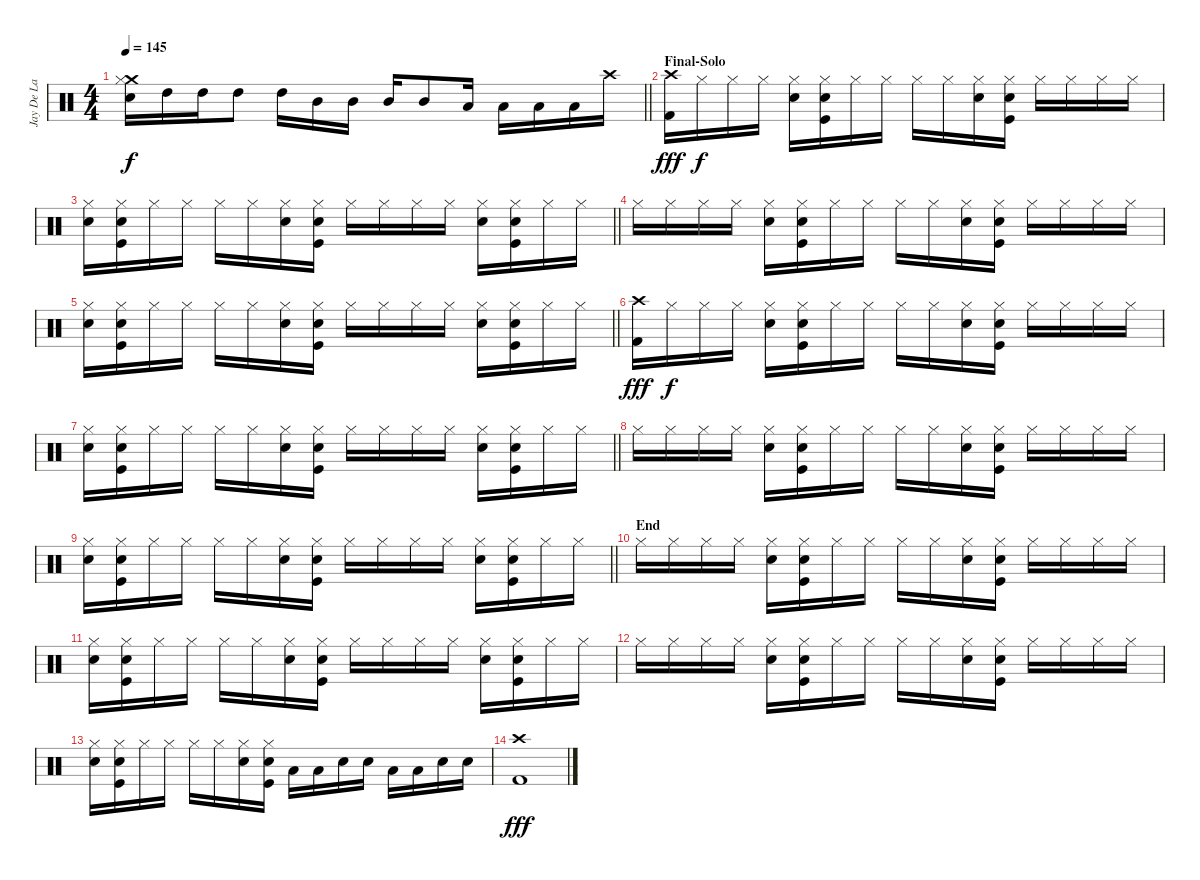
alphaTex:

\track ("Jay De La Cueva o C. G." "Jay De La ") {instrument percussion}
\staff {score}
\articulation defaults
\ts (4 4)
\tempo 145
\clef neutral
\barLineRight lightlight
\ks c
("Crash medium (hit)" "Snare (hit) 2" "Hi-Hat (closed)").16{dy f} "High Tom (hit)".16 "High Tom (hit)".16 "High Tom (hit)".8 "High Tom (hit)".16 "Mid Tom (hit)".16 "Mid Tom (hit)".16 "Mid Tom (hit)".16 "Mid Tom (hit)".8 "Low Tom (hit)".16 "Low Tom (hit)".16 "Low Tom (hit)".16 "Low Tom (hit)".16 "Crash high (hit)".16 |
\section ("" "Final-Solo")
("Crash high (hit)" "Kick (hit) 2").16{dy fff} "Hi-Hat (closed)".16{dy f} "Hi-Hat (closed)".16 "Hi-Hat (closed)".16 ("Snare (hit) 2" "Hi-Hat (closed)").16 ("Kick (hit)" "Snare (hit) 2" "Hi-Hat (closed)").16 "Hi-Hat (closed)".16 "Hi-Hat (closed)".16 "Hi-Hat (closed)".16 "Hi-Hat (closed)".16 ("Snare (hit) 2" "Hi-Hat (closed)").16 ("Kick (hit)" "Snare (hit) 2" "Hi-Hat (closed)").16 "Hi-Hat (closed)".16 "Hi-Hat (closed)".16 "Hi-Hat (closed)".16 "Hi-Hat (closed)".16 |
\barLineRight lightlight
("Snare (hit) 2" "Hi-Hat (closed)").16 ("Kick (hit)" "Snare (hit) 2" "Hi-Hat (closed)").16 "Hi-Hat (closed)".16 "Hi-Hat (closed)".16 "Hi-Hat (closed)".16 "Hi-Hat (closed)".16 ("Snare (hit) 2" "Hi-Hat (closed)").16 ("Kick (hit)" "Snare (hit) 2" "Hi-Hat (closed)").16 "Hi-Hat (closed)".16 "Hi-Hat (closed)".16 "Hi-Hat (closed)".16 "Hi-Hat (closed)".16 ("Snare (hit) 2" "Hi-Hat (closed)").16 ("Kick (hit)" "Snare (hit) 2" "Hi-Hat (closed)").16 "Hi-Hat (closed)".16 "Hi-Hat (closed)".16 |
"Hi-Hat (closed)".16 "Hi-Hat (closed)".16 "Hi-Hat (closed)".16 "Hi-Hat (closed)".16 ("Snare (hit) 2" "Hi-Hat (closed)").16 ("Kick (hit)" "Snare (hit) 2" "Hi-Hat (closed)").16 "Hi-Hat (closed)".16 "Hi-Hat (closed)".16 "Hi-Hat (closed)".16 "Hi-Hat (closed)".16 ("Snare (hit) 2" "Hi-Hat (closed)").16 ("Kick (hit)" "Snare (hit) 2" "Hi-Hat (closed)").16 "Hi-Hat (closed)".16 "Hi-Hat (closed)".16 "Hi-Hat (closed)".16 "Hi-Hat (closed)".16 |
\barLineRight lightlight
("Snare (hit) 2" "Hi-Hat (closed)").16 ("Kick (hit)" "Snare (hit) 2" "Hi-Hat (closed)").16 "Hi-Hat (closed)".16 "Hi-Hat (closed)".16 "Hi-Hat (closed)".16 "Hi-Hat (closed)".16 ("Snare (hit) 2" "Hi-Hat (closed)").16 ("Kick (hit)" "Snare (hit) 2" "Hi-Hat (closed)").16 "Hi-Hat (closed)".16 "Hi-Hat (closed)".16 "Hi-Hat (closed)".16 "Hi-Hat (closed)".16 ("Snare (hit) 2" "Hi-Hat (closed)").16 ("Kick (hit)" "Snare (hit) 2" "Hi-Hat (closed)").16 "Hi-Hat (closed)".16 "Hi-Hat (closed)".16 |
("Crash high (hit)" "Kick (hit) 2").16{dy fff} "Hi-Hat (closed)".16{dy f} "Hi-Hat (closed)".16 "Hi-Hat (closed)".16 ("Snare (hit) 2" "Hi-Hat (closed)").16 ("Kick (hit)" "Snare (hit) 2" "Hi-Hat (closed)").16 "Hi-Hat (closed)".16 "Hi-Hat (closed)".16 "Hi-Hat (closed)".16 "Hi-Hat (closed)".16 ("Snare (hit) 2" "Hi-Hat (closed)").16 ("Kick (hit)" "Snare (hit) 2" "Hi-Hat (closed)").16 "Hi-Hat (closed)".16 "Hi-Hat (closed)".16 "Hi-Hat (closed)".16 "Hi-Hat (closed)".16 |
\barLineRight lightlight
("Snare (hit) 2" "Hi-Hat (closed)").16 ("Kick (hit)" "Snare (hit) 2" "Hi-Hat (closed)").16 "Hi-Hat (closed)".16 "Hi-Hat (closed)".16 "Hi-Hat (closed)".16 "Hi-Hat (closed)".16 ("Snare (hit) 2" "Hi-Hat (closed)").16 ("Kick (hit)" "Snare (hit) 2" "Hi-Hat (closed)").16 "Hi-Hat (closed)".16 "Hi-Hat (closed)".16 "Hi-Hat (closed)".16 "Hi-Hat (closed)".16 ("Snare (hit) 2" "Hi-Hat (closed)").16 ("Kick (hit)" "Snare (hit) 2" "Hi-Hat (closed)").16 "Hi-Hat (closed)".16 "Hi-Hat (closed)".16 |
"Hi-Hat (closed)".16 "Hi-Hat (closed)".16 "Hi-Hat (closed)".16 "Hi-Hat (closed)".16 ("Snare (hit) 2" "Hi-Hat (closed)").16 ("Kick (hit)" "Snare (hit) 2" "Hi-Hat (closed)").16 "Hi-Hat (closed)".16 "Hi-Hat (closed)".16 "Hi-Hat (closed)".16 "Hi-Hat (closed)".16 ("Snare (hit) 2" "Hi-Hat (closed)").16 ("Kick (hit)" "Snare (hit) 2" "Hi-Hat (closed)").16 "Hi-Hat (closed)".16 "Hi-Hat (closed)".16 "Hi-Hat (closed)".16 "Hi-Hat (closed)".16 |
\barLineRight lightlight
("Snare (hit) 2" "Hi-Hat (closed)").16 ("Kick (hit)" "Snare (hit) 2" "Hi-Hat (closed)").16 "Hi-Hat (closed)".16 "Hi-Hat (closed)".16 "Hi-Hat (closed)".16 "Hi-Hat (closed)".16 ("Snare (hit) 2" "Hi-Hat (closed)").16 ("Kick (hit)" "Snare (hit) 2" "Hi-Hat (closed)").16 "Hi-Hat (closed)".16 "Hi-Hat (closed)".16 "Hi-Hat (closed)".16 "Hi-Hat (closed)".16 ("Snare (hit) 2" "Hi-Hat (closed)").16 ("Kick (hit)" "Snare (hit) 2" "Hi-Hat (closed)").16 "Hi-Hat (closed)".16 "Hi-Hat (closed)".16 |
\section ("" "End")
"Hi-Hat (closed)".16 "Hi-Hat (closed)".16 "Hi-Hat (closed)".16 "Hi-Hat (closed)".16 ("Snare (hit) 2" "Hi-Hat (closed)").16 ("Kick (hit)" "Snare (hit) 2" "Hi-Hat (closed)").16 "Hi-Hat (closed)".16 "Hi-Hat (closed)".16 "Hi-Hat (closed)".16 "Hi-Hat (closed)".16 ("Snare (hit) 2" "Hi-Hat (closed)").16 ("Kick (hit)" "Snare (hit) 2" "Hi-Hat (closed)").16 "Hi-Hat (closed)".16 "Hi-Hat (closed)".16 "Hi-Hat (closed)".16 "Hi-Hat (closed)".16 |
("Snare (hit) 2" "Hi-Hat (closed)").16 ("Kick (hit)" "Snare (hit) 2" "Hi-Hat (closed)").16 "Hi-Hat (closed)".16 "Hi-Hat (closed)".16 "Hi-Hat (closed)".16 "Hi-Hat (closed)".16 ("Snare (hit) 2" "Hi-Hat (closed)").16 ("Kick (hit)" "Snare (hit) 2" "Hi-Hat (closed)").16 "Hi-Hat (closed)".16 "Hi-Hat (closed)".16 "Hi-Hat (closed)".16 "Hi-Hat (closed)".16 ("Snare (hit) 2" "Hi-Hat (closed)").16 ("Kick (hit)" "Snare (hit) 2" "Hi-Hat (closed)").16 "Hi-Hat (closed)".16 "Hi-Hat (closed)".16 |
"Hi-Hat (closed)".16 "Hi-Hat (closed)".16 "Hi-Hat (closed)".16 "Hi-Hat (closed)".16 ("Snare (hit) 2" "Hi-Hat (closed)").16 ("Kick (hit)" "Snare (hit) 2" "Hi-Hat (closed)").16 "Hi-Hat (closed)".16 "Hi-Hat (closed)".16 "Hi-Hat (closed)".16 "Hi-Hat (closed)".16 ("Snare (hit) 2" "Hi-Hat (closed)").16 ("Kick (hit)" "Snare (hit) 2" "Hi-Hat (closed)").16 "Hi-Hat (closed)".16 "Hi-Hat (closed)".16 "Hi-Hat (closed)".16 "Hi-Hat (closed)".16 |
("Snare (hit) 2" "Hi-Hat (closed)").16 ("Kick (hit)" "Snare (hit) 2" "Hi-Hat (closed)").16 "Hi-Hat (closed)".16 "Hi-Hat (closed)".16 "Hi-Hat (closed)".16 "Hi-Hat (closed)".16 ("Snare (hit) 2" "Hi-Hat (closed)").16 ("Kick (hit)" "Snare (hit) 2" "Hi-Hat (closed)").16 "Low Tom (hit)".16 "Low Tom (hit)".16 "Snare (hit) 2".16 "Snare (hit) 2".16 "Low Tom (hit)".16 "Low Tom (hit)".16 "Snare (hit) 2".16 "Snare (hit) 2".16 |
("Crash high (hit)" "Kick (hit) 2").1{dy fff}
